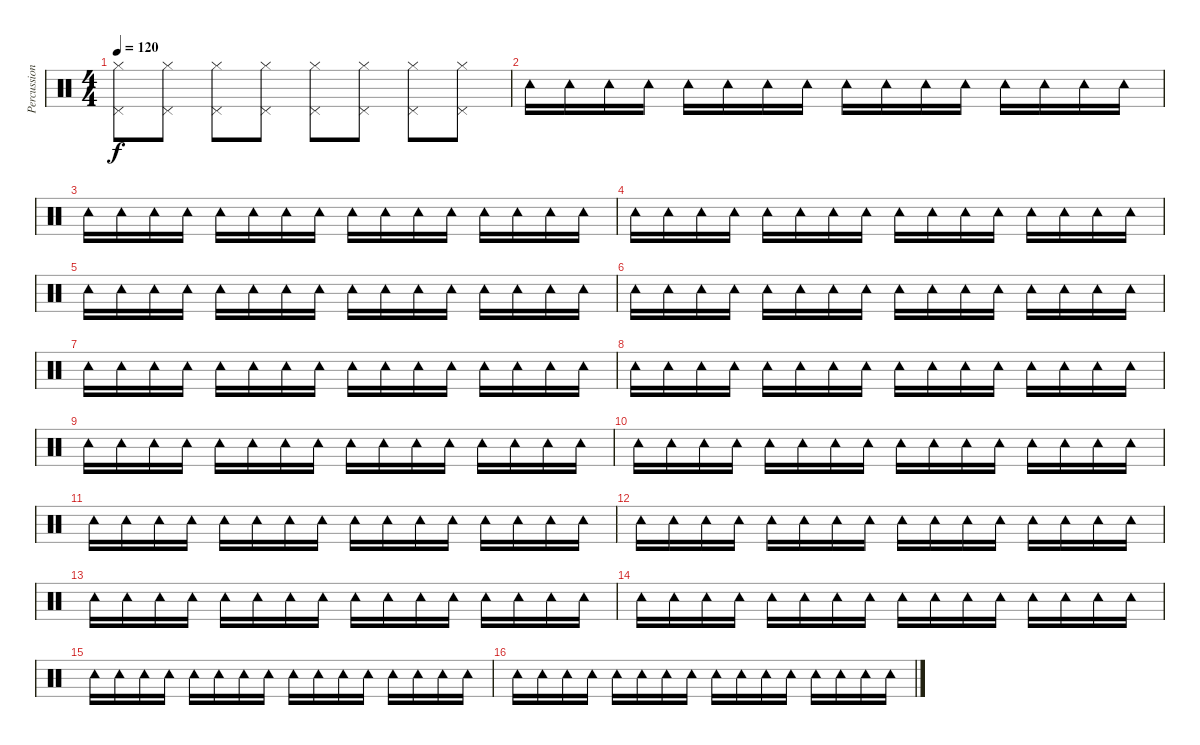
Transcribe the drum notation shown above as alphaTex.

\track ("Percussion" "Percussion") {instrument percussion}
\staff {score}
\articulation defaults
\ts (4 4)
\tempo 120
\clef neutral
\ks c
("Hi-Hat (closed)" "Pedal Hi-Hat (hit)").8{dy f} ("Hi-Hat (closed)" "Pedal Hi-Hat (hit)").8 ("Hi-Hat (closed)" "Pedal Hi-Hat (hit)").8 ("Hi-Hat (closed)" "Pedal Hi-Hat (hit)").8 ("Hi-Hat (closed)" "Pedal Hi-Hat (hit)").8 ("Hi-Hat (closed)" "Pedal Hi-Hat (hit)").8 ("Hi-Hat (closed)" "Pedal Hi-Hat (hit)").8 ("Hi-Hat (closed)" "Pedal Hi-Hat (hit)").8 |
"Tambourine (hit)".16 "Tambourine (hit)".16 "Tambourine (hit)".16 "Tambourine (hit)".16 "Tambourine (hit)".16 "Tambourine (hit)".16 "Tambourine (hit)".16 "Tambourine (hit)".16 "Tambourine (hit)".16 "Tambourine (hit)".16 "Tambourine (hit)".16 "Tambourine (hit)".16 "Tambourine (hit)".16 "Tambourine (hit)".16 "Tambourine (hit)".16 "Tambourine (hit)".16 |
"Tambourine (hit)".16 "Tambourine (hit)".16 "Tambourine (hit)".16 "Tambourine (hit)".16 "Tambourine (hit)".16 "Tambourine (hit)".16 "Tambourine (hit)".16 "Tambourine (hit)".16 "Tambourine (hit)".16 "Tambourine (hit)".16 "Tambourine (hit)".16 "Tambourine (hit)".16 "Tambourine (hit)".16 "Tambourine (hit)".16 "Tambourine (hit)".16 "Tambourine (hit)".16 |
"Tambourine (hit)".16 "Tambourine (hit)".16 "Tambourine (hit)".16 "Tambourine (hit)".16 "Tambourine (hit)".16 "Tambourine (hit)".16 "Tambourine (hit)".16 "Tambourine (hit)".16 "Tambourine (hit)".16 "Tambourine (hit)".16 "Tambourine (hit)".16 "Tambourine (hit)".16 "Tambourine (hit)".16 "Tambourine (hit)".16 "Tambourine (hit)".16 "Tambourine (hit)".16 |
"Tambourine (hit)".16 "Tambourine (hit)".16 "Tambourine (hit)".16 "Tambourine (hit)".16 "Tambourine (hit)".16 "Tambourine (hit)".16 "Tambourine (hit)".16 "Tambourine (hit)".16 "Tambourine (hit)".16 "Tambourine (hit)".16 "Tambourine (hit)".16 "Tambourine (hit)".16 "Tambourine (hit)".16 "Tambourine (hit)".16 "Tambourine (hit)".16 "Tambourine (hit)".16 |
"Tambourine (hit)".16 "Tambourine (hit)".16 "Tambourine (hit)".16 "Tambourine (hit)".16 "Tambourine (hit)".16 "Tambourine (hit)".16 "Tambourine (hit)".16 "Tambourine (hit)".16 "Tambourine (hit)".16 "Tambourine (hit)".16 "Tambourine (hit)".16 "Tambourine (hit)".16 "Tambourine (hit)".16 "Tambourine (hit)".16 "Tambourine (hit)".16 "Tambourine (hit)".16 |
"Tambourine (hit)".16 "Tambourine (hit)".16 "Tambourine (hit)".16 "Tambourine (hit)".16 "Tambourine (hit)".16 "Tambourine (hit)".16 "Tambourine (hit)".16 "Tambourine (hit)".16 "Tambourine (hit)".16 "Tambourine (hit)".16 "Tambourine (hit)".16 "Tambourine (hit)".16 "Tambourine (hit)".16 "Tambourine (hit)".16 "Tambourine (hit)".16 "Tambourine (hit)".16 |
"Tambourine (hit)".16 "Tambourine (hit)".16 "Tambourine (hit)".16 "Tambourine (hit)".16 "Tambourine (hit)".16 "Tambourine (hit)".16 "Tambourine (hit)".16 "Tambourine (hit)".16 "Tambourine (hit)".16 "Tambourine (hit)".16 "Tambourine (hit)".16 "Tambourine (hit)".16 "Tambourine (hit)".16 "Tambourine (hit)".16 "Tambourine (hit)".16 "Tambourine (hit)".16 |
"Tambourine (hit)".16 "Tambourine (hit)".16 "Tambourine (hit)".16 "Tambourine (hit)".16 "Tambourine (hit)".16 "Tambourine (hit)".16 "Tambourine (hit)".16 "Tambourine (hit)".16 "Tambourine (hit)".16 "Tambourine (hit)".16 "Tambourine (hit)".16 "Tambourine (hit)".16 "Tambourine (hit)".16 "Tambourine (hit)".16 "Tambourine (hit)".16 "Tambourine (hit)".16 |
"Tambourine (hit)".16 "Tambourine (hit)".16 "Tambourine (hit)".16 "Tambourine (hit)".16 "Tambourine (hit)".16 "Tambourine (hit)".16 "Tambourine (hit)".16 "Tambourine (hit)".16 "Tambourine (hit)".16 "Tambourine (hit)".16 "Tambourine (hit)".16 "Tambourine (hit)".16 "Tambourine (hit)".16 "Tambourine (hit)".16 "Tambourine (hit)".16 "Tambourine (hit)".16 |
"Tambourine (hit)".16 "Tambourine (hit)".16 "Tambourine (hit)".16 "Tambourine (hit)".16 "Tambourine (hit)".16 "Tambourine (hit)".16 "Tambourine (hit)".16 "Tambourine (hit)".16 "Tambourine (hit)".16 "Tambourine (hit)".16 "Tambourine (hit)".16 "Tambourine (hit)".16 "Tambourine (hit)".16 "Tambourine (hit)".16 "Tambourine (hit)".16 "Tambourine (hit)".16 |
"Tambourine (hit)".16 "Tambourine (hit)".16 "Tambourine (hit)".16 "Tambourine (hit)".16 "Tambourine (hit)".16 "Tambourine (hit)".16 "Tambourine (hit)".16 "Tambourine (hit)".16 "Tambourine (hit)".16 "Tambourine (hit)".16 "Tambourine (hit)".16 "Tambourine (hit)".16 "Tambourine (hit)".16 "Tambourine (hit)".16 "Tambourine (hit)".16 "Tambourine (hit)".16 |
"Tambourine (hit)".16 "Tambourine (hit)".16 "Tambourine (hit)".16 "Tambourine (hit)".16 "Tambourine (hit)".16 "Tambourine (hit)".16 "Tambourine (hit)".16 "Tambourine (hit)".16 "Tambourine (hit)".16 "Tambourine (hit)".16 "Tambourine (hit)".16 "Tambourine (hit)".16 "Tambourine (hit)".16 "Tambourine (hit)".16 "Tambourine (hit)".16 "Tambourine (hit)".16 |
"Tambourine (hit)".16 "Tambourine (hit)".16 "Tambourine (hit)".16 "Tambourine (hit)".16 "Tambourine (hit)".16 "Tambourine (hit)".16 "Tambourine (hit)".16 "Tambourine (hit)".16 "Tambourine (hit)".16 "Tambourine (hit)".16 "Tambourine (hit)".16 "Tambourine (hit)".16 "Tambourine (hit)".16 "Tambourine (hit)".16 "Tambourine (hit)".16 "Tambourine (hit)".16 |
"Tambourine (hit)".16 "Tambourine (hit)".16 "Tambourine (hit)".16 "Tambourine (hit)".16 "Tambourine (hit)".16 "Tambourine (hit)".16 "Tambourine (hit)".16 "Tambourine (hit)".16 "Tambourine (hit)".16 "Tambourine (hit)".16 "Tambourine (hit)".16 "Tambourine (hit)".16 "Tambourine (hit)".16 "Tambourine (hit)".16 "Tambourine (hit)".16 "Tambourine (hit)".16 |
"Tambourine (hit)".16 "Tambourine (hit)".16 "Tambourine (hit)".16 "Tambourine (hit)".16 "Tambourine (hit)".16 "Tambourine (hit)".16 "Tambourine (hit)".16 "Tambourine (hit)".16 "Tambourine (hit)".16 "Tambourine (hit)".16 "Tambourine (hit)".16 "Tambourine (hit)".16 "Tambourine (hit)".16 "Tambourine (hit)".16 "Tambourine (hit)".16 "Tambourine (hit)".16
